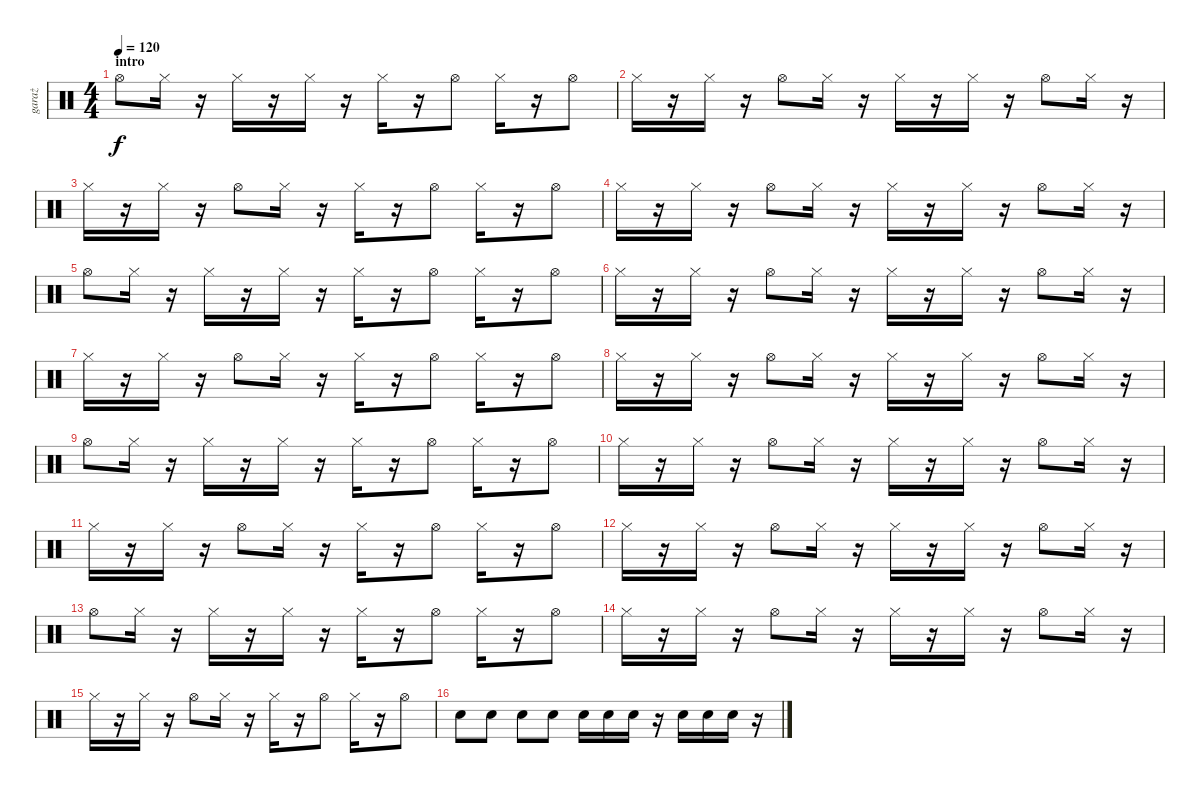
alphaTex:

\track ("garaż" "garaż") {instrument percussion}
\staff {score}
\articulation defaults
\ts (4 4)
\section ("" "intro")
\tempo 120
\clef neutral
\ks c "Hi-Hat (open)".8{dy f} "Hi-Hat (closed)".16
r.16 "Hi-Hat (closed)".16 r.16 "Hi-Hat (closed)".16 r.16 "Hi-Hat (closed)".16 r.16 "Hi-Hat (open)".8 "Hi-Hat (closed)".16 r.16 "Hi-Hat (open)".8 |
"Hi-Hat (closed)".16 r.16 "Hi-Hat (closed)".16 r.16 "Hi-Hat (open)".8 "Hi-Hat (closed)".16 r.16 "Hi-Hat (closed)".16 r.16 "Hi-Hat (closed)".16 r.16 "Hi-Hat (open)".8 "Hi-Hat (closed)".16 r.16 |
"Hi-Hat (closed)".16 r.16 "Hi-Hat (closed)".16 r.16 "Hi-Hat (open)".8 "Hi-Hat (closed)".16 r.16 "Hi-Hat (closed)".16 r.16 "Hi-Hat (open)".8 "Hi-Hat (closed)".16 r.16 "Hi-Hat (open)".8 |
"Hi-Hat (closed)".16 r.16 "Hi-Hat (closed)".16 r.16 "Hi-Hat (open)".8 "Hi-Hat (closed)".16 r.16 "Hi-Hat (closed)".16 r.16 "Hi-Hat (closed)".16 r.16 "Hi-Hat (open)".8 "Hi-Hat (closed)".16 r.16 |
"Hi-Hat (open)".8 "Hi-Hat (closed)".16 r.16 "Hi-Hat (closed)".16 r.16 "Hi-Hat (closed)".16 r.16 "Hi-Hat (closed)".16 r.16 "Hi-Hat (open)".8 "Hi-Hat (closed)".16 r.16 "Hi-Hat (open)".8 |
"Hi-Hat (closed)".16 r.16 "Hi-Hat (closed)".16 r.16 "Hi-Hat (open)".8 "Hi-Hat (closed)".16 r.16 "Hi-Hat (closed)".16 r.16 "Hi-Hat (closed)".16 r.16 "Hi-Hat (open)".8 "Hi-Hat (closed)".16 r.16 |
"Hi-Hat (closed)".16 r.16 "Hi-Hat (closed)".16 r.16 "Hi-Hat (open)".8 "Hi-Hat (closed)".16 r.16 "Hi-Hat (closed)".16 r.16 "Hi-Hat (open)".8 "Hi-Hat (closed)".16 r.16 "Hi-Hat (open)".8 |
"Hi-Hat (closed)".16 r.16 "Hi-Hat (closed)".16 r.16 "Hi-Hat (open)".8 "Hi-Hat (closed)".16 r.16 "Hi-Hat (closed)".16 r.16 "Hi-Hat (closed)".16 r.16 "Hi-Hat (open)".8 "Hi-Hat (closed)".16 r.16 |
"Hi-Hat (open)".8 "Hi-Hat (closed)".16 r.16 "Hi-Hat (closed)".16 r.16 "Hi-Hat (closed)".16 r.16 "Hi-Hat (closed)".16 r.16 "Hi-Hat (open)".8 "Hi-Hat (closed)".16 r.16 "Hi-Hat (open)".8 |
"Hi-Hat (closed)".16 r.16 "Hi-Hat (closed)".16 r.16 "Hi-Hat (open)".8 "Hi-Hat (closed)".16 r.16 "Hi-Hat (closed)".16 r.16 "Hi-Hat (closed)".16 r.16 "Hi-Hat (open)".8 "Hi-Hat (closed)".16 r.16 |
"Hi-Hat (closed)".16 r.16 "Hi-Hat (closed)".16 r.16 "Hi-Hat (open)".8 "Hi-Hat (closed)".16 r.16 "Hi-Hat (closed)".16 r.16 "Hi-Hat (open)".8 "Hi-Hat (closed)".16 r.16 "Hi-Hat (open)".8 |
"Hi-Hat (closed)".16 r.16 "Hi-Hat (closed)".16 r.16 "Hi-Hat (open)".8 "Hi-Hat (closed)".16 r.16 "Hi-Hat (closed)".16 r.16 "Hi-Hat (closed)".16 r.16 "Hi-Hat (open)".8 "Hi-Hat (closed)".16 r.16 |
"Hi-Hat (open)".8 "Hi-Hat (closed)".16 r.16 "Hi-Hat (closed)".16 r.16 "Hi-Hat (closed)".16 r.16 "Hi-Hat (closed)".16 r.16 "Hi-Hat (open)".8 "Hi-Hat (closed)".16 r.16 "Hi-Hat (open)".8 |
"Hi-Hat (closed)".16 r.16 "Hi-Hat (closed)".16 r.16 "Hi-Hat (open)".8 "Hi-Hat (closed)".16 r.16 "Hi-Hat (closed)".16 r.16 "Hi-Hat (closed)".16 r.16 "Hi-Hat (open)".8 "Hi-Hat (closed)".16 r.16 |
"Hi-Hat (closed)".16 r.16 "Hi-Hat (closed)".16 r.16 "Hi-Hat (open)".8 "Hi-Hat (closed)".16 r.16 "Hi-Hat (closed)".16 r.16 "Hi-Hat (open)".8 "Hi-Hat (closed)".16 r.16 "Hi-Hat (open)".8 |
"Snare (hit) 2".8 "Snare (hit) 2".8 "Snare (hit) 2".8 "Snare (hit) 2".8 "Snare (hit) 2".16 "Snare (hit) 2".16 "Snare (hit) 2".16 r.16 "Snare (hit) 2".16 "Snare (hit) 2".16 "Snare (hit) 2".16 r.16
